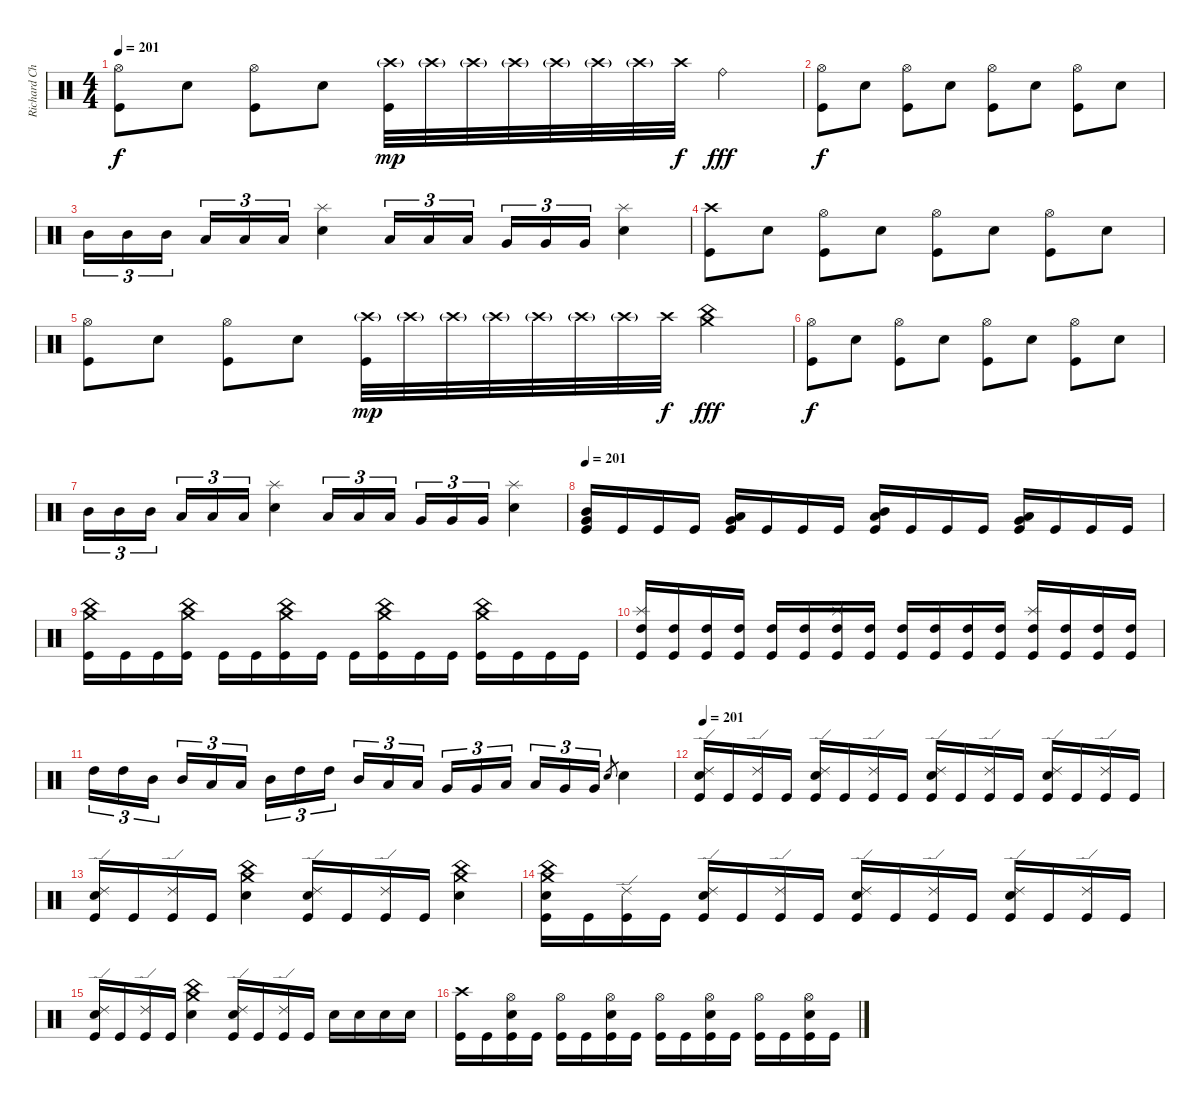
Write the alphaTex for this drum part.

\track ("Richard Christy " "Richard Ch") {instrument percussion}
\staff {score}
\articulation defaults
\ts (4 4)
\tempo 201
\clef neutral
\ks c
("Hi-Hat (open)" "Kick (hit)").8{dy f} "Electric Snare (hit)".8 ("Hi-Hat (open)" "Kick (hit)").8 "Electric Snare (hit)".8 ("Crash high (hit)"{g} "Kick (hit)").32{dy mp} "Crash high (hit)"{g}.32 "Crash high (hit)"{g}.32 "Crash high (hit)"{g}.32 "Crash high (hit)"{g}.32 "Crash high (hit)"{g}.32 "Crash high (hit)"{g}.32 "Crash high (hit)".32{dy f} "Ride (bell)".4{dy fff} |
("Hi-Hat (open)" "Kick (hit)").8{dy f} "Electric Snare (hit)".8 ("Hi-Hat (open)" "Kick (hit)").8 "Electric Snare (hit)".8 ("Hi-Hat (open)" "Kick (hit)").8 "Electric Snare (hit)".8 ("Hi-Hat (open)" "Kick (hit)").8 "Electric Snare (hit)".8 |
"Mid Tom (hit)".16{tu (3 2)} "Mid Tom (hit)".16{tu (3 2)} "Mid Tom (hit)".16{tu (3 2)} "Low Tom (hit)".16{tu (3 2)} "Low Tom (hit)".16{tu (3 2)} "Low Tom (hit)".16{tu (3 2)} ("Splash (hit)" "Electric Snare (hit)").4 "Low Tom (hit)".16{tu (3 2)} "Low Tom (hit)".16{tu (3 2)} "Low Tom (hit)".16{tu (3 2)} "Very Low Tom (hit)".16{tu (3 2)} "Very Low Tom (hit)".16{tu (3 2)} "Very Low Tom (hit)".16{tu (3 2)} ("Splash (hit)" "Electric Snare (hit)").4 |
("Crash high (hit)" "Kick (hit)").8 "Electric Snare (hit)".8 ("Hi-Hat (open)" "Kick (hit)").8 "Electric Snare (hit)".8 ("Hi-Hat (open)" "Kick (hit)").8 "Electric Snare (hit)".8 ("Hi-Hat (open)" "Kick (hit)").8 "Electric Snare (hit)".8 |
("Hi-Hat (open)" "Kick (hit)").8 "Electric Snare (hit)".8 ("Hi-Hat (open)" "Kick (hit)").8 "Electric Snare (hit)".8 ("Crash high (hit)"{g} "Kick (hit)").32{dy mp} "Crash high (hit)"{g}.32 "Crash high (hit)"{g}.32 "Crash high (hit)"{g}.32 "Crash high (hit)"{g}.32 "Crash high (hit)"{g}.32 "Crash high (hit)"{g}.32 "Crash high (hit)".32{dy f} ("Crash medium (hit)" "China (hit)").4{dy fff} |
("Hi-Hat (open)" "Kick (hit)").8{dy f} "Electric Snare (hit)".8 ("Hi-Hat (open)" "Kick (hit)").8 "Electric Snare (hit)".8 ("Hi-Hat (open)" "Kick (hit)").8 "Electric Snare (hit)".8 ("Hi-Hat (open)" "Kick (hit)").8 "Electric Snare (hit)".8 |
"Mid Tom (hit)".16{tu (3 2)} "Mid Tom (hit)".16{tu (3 2)} "Mid Tom (hit)".16{tu (3 2)} "Low Tom (hit)".16{tu (3 2)} "Low Tom (hit)".16{tu (3 2)} "Low Tom (hit)".16{tu (3 2)} ("Splash (hit)" "Electric Snare (hit)").4 "Low Tom (hit)".16{tu (3 2)} "Low Tom (hit)".16{tu (3 2)} "Low Tom (hit)".16{tu (3 2)} "Very Low Tom (hit)".16{tu (3 2)} "Very Low Tom (hit)".16{tu (3 2)} "Very Low Tom (hit)".16{tu (3 2)} ("Splash (hit)" "Electric Snare (hit)").4 |
\tempo 201
("Mid Tom (hit)" "Very Low Tom (hit)" "Kick (hit)").16 "Kick (hit)".16 "Kick (hit)".16 "Kick (hit)".16 ("Low Tom (hit)" "Very Low Tom (hit)" "Kick (hit)").16 "Kick (hit)".16 "Kick (hit)".16 "Kick (hit)".16 ("Mid Tom (hit)" "Low Tom (hit)" "Kick (hit)").16 "Kick (hit)".16 "Kick (hit)".16 "Kick (hit)".16 ("Low Tom (hit)" "Very Low Tom (hit)" "Kick (hit)").16 "Kick (hit)".16 "Kick (hit)".16 "Kick (hit)".16 |
("Crash medium (hit)" "China (hit)" "Kick (hit)").16 "Kick (hit)".16 "Kick (hit)".16 ("Crash medium (hit)" "China (hit)" "Kick (hit)").16 "Kick (hit)".16 "Kick (hit)".16 ("Crash medium (hit)" "China (hit)" "Kick (hit)").16 "Kick (hit)".16 "Kick (hit)".16 ("Crash medium (hit)" "China (hit)" "Kick (hit)").16 "Kick (hit)".16 "Kick (hit)".16 ("Crash medium (hit)" "China (hit)" "Kick (hit)").16 "Kick (hit)".16 "Kick (hit)".16 "Kick (hit)".16 |
("Splash (hit)" "High Tom (hit)" "Kick (hit)").16 ("High Tom (hit)" "Kick (hit)").16 ("High Tom (hit)" "Kick (hit)").16 ("High Tom (hit)" "Kick (hit)").16 ("High Tom (hit)" "Kick (hit)").16 ("High Tom (hit)" "Kick (hit)").16 ("Splash (hit)" "High Tom (hit)" "Kick (hit)").16 ("High Tom (hit)" "Kick (hit)").16 ("High Tom (hit)" "Kick (hit)").16 ("High Tom (hit)" "Kick (hit)").16 ("High Tom (hit)" "Kick (hit)").16 ("High Tom (hit)" "Kick (hit)").16 ("Splash (hit)" "High Tom (hit)" "Kick (hit)").16 ("High Tom (hit)" "Kick (hit)").16 ("High Tom (hit)" "Kick (hit)").16 ("High Tom (hit)" "Kick (hit)").16 |
"High Tom (hit)".16{tu (3 2)} "High Tom (hit)".16{tu (3 2)} "Mid Tom (hit)".16{tu (3 2)} "Mid Tom (hit)".16{tu (3 2)} "Low Tom (hit)".16{tu (3 2)} "Low Tom (hit)".16{tu (3 2)} "Mid Tom (hit)".16{tu (3 2)} "High Tom (hit)".16{tu (3 2)} "High Tom (hit)".16{tu (3 2)} "Mid Tom (hit)".16{tu (3 2)} "Low Tom (hit)".16{tu (3 2)} "Low Tom (hit)".16{tu (3 2)} "Very Low Tom (hit)".16{tu (3 2)} "Very Low Tom (hit)".16{tu (3 2)} "Low Tom (hit)".16{tu (3 2)} "Low Tom (hit)".16{tu (3 2)} "Very Low Tom (hit)".16{tu (3 2)} "Very Low Tom (hit)".16{tu (3 2)} "Electric Snare (hit)".8{gr} "Electric Snare (hit)".4 |
\tempo 201
("Ride (edge) 2" "Electric Snare (hit)" "Kick (hit)").16 "Kick (hit)".16 ("Ride (edge) 2" "Kick (hit)").16 "Kick (hit)".16 ("Ride (edge) 2" "Electric Snare (hit)" "Kick (hit)").16 "Kick (hit)".16 ("Ride (edge) 2" "Kick (hit)").16 "Kick (hit)".16 ("Ride (edge) 2" "Electric Snare (hit)" "Kick (hit)").16 "Kick (hit)".16 ("Ride (edge) 2" "Kick (hit)").16 "Kick (hit)".16 ("Ride (edge) 2" "Electric Snare (hit)" "Kick (hit)").16 "Kick (hit)".16 ("Ride (edge) 2" "Kick (hit)").16 "Kick (hit)".16 |
("Ride (edge) 2" "Electric Snare (hit)" "Kick (hit)").16 "Kick (hit)".16 ("Ride (edge) 2" "Kick (hit)").16 "Kick (hit)".16 ("Crash medium (hit)" "China (hit)" "Electric Snare (hit)").4 ("Ride (edge) 2" "Electric Snare (hit)" "Kick (hit)").16 "Kick (hit)".16 ("Ride (edge) 2" "Kick (hit)").16 "Kick (hit)".16 ("Crash medium (hit)" "China (hit)" "Electric Snare (hit)").4 |
("Crash medium (hit)" "China (hit)" "Electric Snare (hit)" "Kick (hit)").16 "Kick (hit)".16 ("Ride (edge) 2" "Kick (hit)").16 "Kick (hit)".16 ("Ride (edge) 2" "Electric Snare (hit)" "Kick (hit)").16 "Kick (hit)".16 ("Ride (edge) 2" "Kick (hit)").16 "Kick (hit)".16 ("Ride (edge) 2" "Electric Snare (hit)" "Kick (hit)").16 "Kick (hit)".16 ("Ride (edge) 2" "Kick (hit)").16 "Kick (hit)".16 ("Ride (edge) 2" "Electric Snare (hit)" "Kick (hit)").16 "Kick (hit)".16 ("Ride (edge) 2" "Kick (hit)").16 "Kick (hit)".16 |
("Ride (edge) 2" "Electric Snare (hit)" "Kick (hit)").16 "Kick (hit)".16 ("Ride (edge) 2" "Kick (hit)").16 "Kick (hit)".16 ("Crash medium (hit)" "China (hit)" "Electric Snare (hit)").4 ("Ride (edge) 2" "Electric Snare (hit)" "Kick (hit)").16 "Kick (hit)".16 ("Ride (edge) 2" "Kick (hit)").16 "Kick (hit)".16 "Electric Snare (hit)".16 "Electric Snare (hit)".16 "Electric Snare (hit)".16 "Electric Snare (hit)".16 |
("Crash high (hit)" "Kick (hit)").16 "Kick (hit)".16 ("Hi-Hat (open)" "Electric Snare (hit)" "Kick (hit)").16 "Kick (hit)".16 ("Hi-Hat (open)" "Kick (hit)").16 "Kick (hit)".16 ("Hi-Hat (open)" "Electric Snare (hit)" "Kick (hit)").16 "Kick (hit)".16 ("Hi-Hat (open)" "Kick (hit)").16 "Kick (hit)".16 ("Hi-Hat (open)" "Electric Snare (hit)" "Kick (hit)").16 "Kick (hit)".16 ("Hi-Hat (open)" "Kick (hit)").16 "Kick (hit)".16 ("Hi-Hat (open)" "Electric Snare (hit)" "Kick (hit)").16 "Kick (hit)".16
